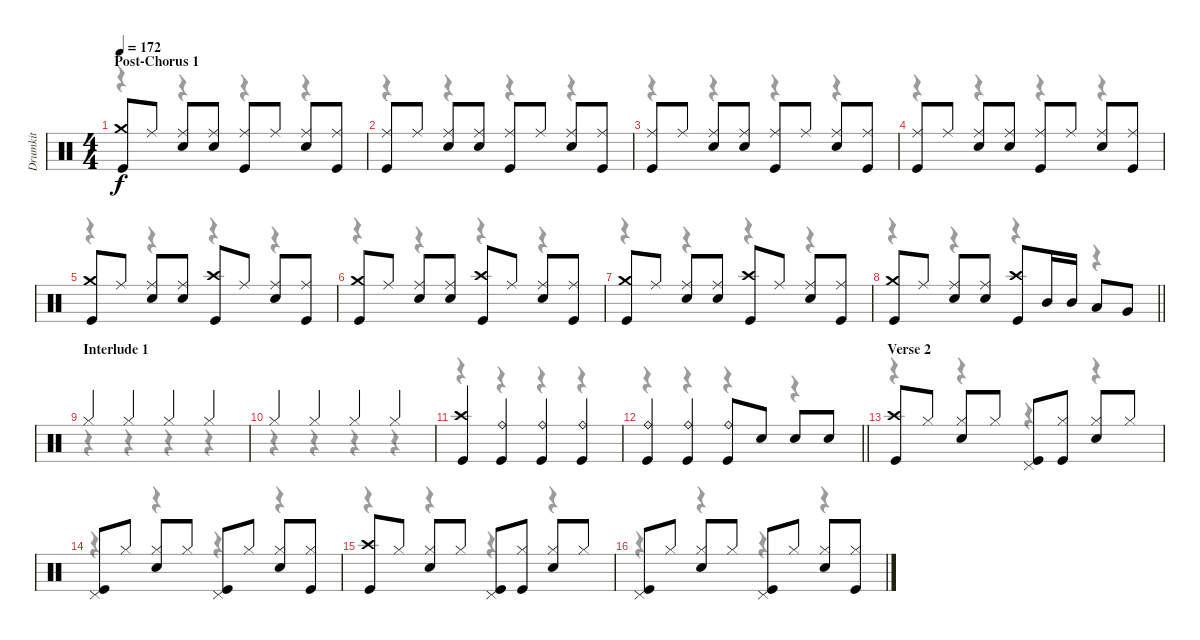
\track ("Drumkit" "Drumkit") {instrument percussion}
\staff {score}
\articulation defaults
\voice
\ts (4 4)
\section ("" "Post-Chorus 1")
\tempo 172
\clef neutral
\ks c
("Crash medium (hit)" "Kick (hit)").8{dy f} "Ride (middle)".8 ("Ride (middle)" "Snare (hit) 2").8 ("Ride (middle)" "Snare (hit) 2").8 ("Ride (middle)" "Kick (hit)").8 "Ride (middle)".8 ("Ride (middle)" "Snare (hit) 2").8 ("Ride (middle)" "Kick (hit)").8 |
("Ride (middle)" "Kick (hit)").8 "Ride (middle)".8 ("Ride (middle)" "Snare (hit) 2").8 ("Ride (middle)" "Snare (hit) 2").8 ("Ride (middle)" "Kick (hit)").8 "Ride (middle)".8 ("Ride (middle)" "Snare (hit) 2").8 ("Ride (middle)" "Kick (hit)").8 |
("Ride (middle)" "Kick (hit)").8 "Ride (middle)".8 ("Ride (middle)" "Snare (hit) 2").8 ("Ride (middle)" "Snare (hit) 2").8 ("Ride (middle)" "Kick (hit)").8 "Ride (middle)".8 ("Ride (middle)" "Snare (hit) 2").8 ("Ride (middle)" "Kick (hit)").8 |
("Ride (middle)" "Kick (hit)").8 "Ride (middle)".8 ("Ride (middle)" "Snare (hit) 2").8 ("Ride (middle)" "Snare (hit) 2").8 ("Ride (middle)" "Kick (hit)").8 "Ride (middle)".8 ("Ride (middle)" "Snare (hit) 2").8 ("Ride (middle)" "Kick (hit)").8 |
("Crash medium (hit)" "Kick (hit)").8 "Ride (middle)".8 ("Ride (middle)" "Snare (hit) 2").8 ("Ride (middle)" "Snare (hit) 2").8 ("Crash high (hit)" "Kick (hit)").8 "Ride (middle)".8 ("Ride (middle)" "Snare (hit) 2").8 ("Ride (middle)" "Kick (hit)").8 |
("Crash medium (hit)" "Kick (hit)").8 "Ride (middle)".8 ("Ride (middle)" "Snare (hit) 2").8 ("Ride (middle)" "Snare (hit) 2").8 ("Crash high (hit)" "Kick (hit)").8 "Ride (middle)".8 ("Ride (middle)" "Snare (hit) 2").8 ("Ride (middle)" "Kick (hit)").8 |
("Crash medium (hit)" "Kick (hit)").8 "Ride (middle)".8 ("Ride (middle)" "Snare (hit) 2").8 ("Ride (middle)" "Snare (hit) 2").8 ("Crash high (hit)" "Kick (hit)").8 "Ride (middle)".8 ("Ride (middle)" "Snare (hit) 2").8 ("Ride (middle)" "Kick (hit)").8 |
\barLineRight lightlight
("Crash medium (hit)" "Kick (hit)").8 "Ride (middle)".8 ("Ride (middle)" "Snare (hit) 2").8 ("Ride (middle)" "Snare (hit) 2").8 ("Crash high (hit)" "Kick (hit)").8 "Mid Tom (hit)".16 "Mid Tom (hit)".16 "Low Tom (hit)".8 "Very Low Tom (hit)".8 |
\section ("" "Interlude 1")
"Hi-Hat (closed)".4 "Hi-Hat (closed)".4 "Hi-Hat (closed)".4 "Hi-Hat (closed)".4 |
"Hi-Hat (closed)".4 "Hi-Hat (closed)".4 "Hi-Hat (closed)".4 "Hi-Hat (closed)".4 |
("Crash high (hit)" "Kick (hit)").4 ("Ride (bell)" "Kick (hit)").4 ("Ride (bell)" "Kick (hit)").4 ("Ride (bell)" "Kick (hit)").4 |
\barLineRight lightlight
("Ride (bell)" "Kick (hit)").4 ("Ride (bell)" "Kick (hit)").4 ("Ride (bell)" "Kick (hit)").8 "Snare (hit) 2".8 "Snare (hit) 2".8 "Snare (hit) 2".8 |
\section ("" "Verse 2")
("Crash high (hit)" "Kick (hit)").8 "Hi-Hat (closed)".8 ("Hi-Hat (closed)" "Snare (hit) 2").8 "Hi-Hat (closed)".8 ("Pedal Hi-Hat (hit)" "Kick (hit)").8 ("Hi-Hat (closed)" "Kick (hit)").8 ("Hi-Hat (closed)" "Snare (hit) 2").8 "Hi-Hat (closed)".8 |
("Pedal Hi-Hat (hit)" "Kick (hit)").8 "Hi-Hat (closed)".8 ("Hi-Hat (closed)" "Snare (hit) 2").8 "Hi-Hat (closed)".8 ("Pedal Hi-Hat (hit)" "Kick (hit)").8 "Hi-Hat (closed)".8 ("Hi-Hat (closed)" "Snare (hit) 2").8 ("Hi-Hat (closed)" "Kick (hit)").8 |
("Crash high (hit)" "Kick (hit)").8 "Hi-Hat (closed)".8 ("Hi-Hat (closed)" "Snare (hit) 2").8 "Hi-Hat (closed)".8 ("Pedal Hi-Hat (hit)" "Kick (hit)").8 ("Hi-Hat (closed)" "Kick (hit)").8 ("Hi-Hat (closed)" "Snare (hit) 2").8 "Hi-Hat (closed)".8 |
("Pedal Hi-Hat (hit)" "Kick (hit)").8 "Hi-Hat (closed)".8 ("Hi-Hat (closed)" "Snare (hit) 2").8 "Hi-Hat (closed)".8 ("Pedal Hi-Hat (hit)" "Kick (hit)").8 "Hi-Hat (closed)".8 ("Hi-Hat (closed)" "Snare (hit) 2").8 ("Hi-Hat (closed)" "Kick (hit)").8
\voice
\clef neutral
\ottava regular
\simile none
\ks c
r.4{dy f} r.4 r.4 r.4 |
r.4 r.4 r.4 r.4 |
r.4 r.4 r.4 r.4 |
r.4 r.4 r.4 r.4 |
r.4 r.4 r.4 r.4 |
r.4 r.4 r.4 r.4 |
r.4 r.4 r.4 r.4 |
\barLineRight lightlight
r.4 r.4 r.4 r.4 |
r.4 r.4 r.4 r.4 |
r.4 r.4 r.4 r.4 |
r.4 r.4 r.4 r.4 |
\barLineRight lightlight
r.4 r.4 r.4 r.4 |
r.4 r.4 r.4 r.4 |
r.4 r.4 r.4 r.4 |
r.4 r.4 r.4 r.4 |
r.4 r.4 r.4 r.4
